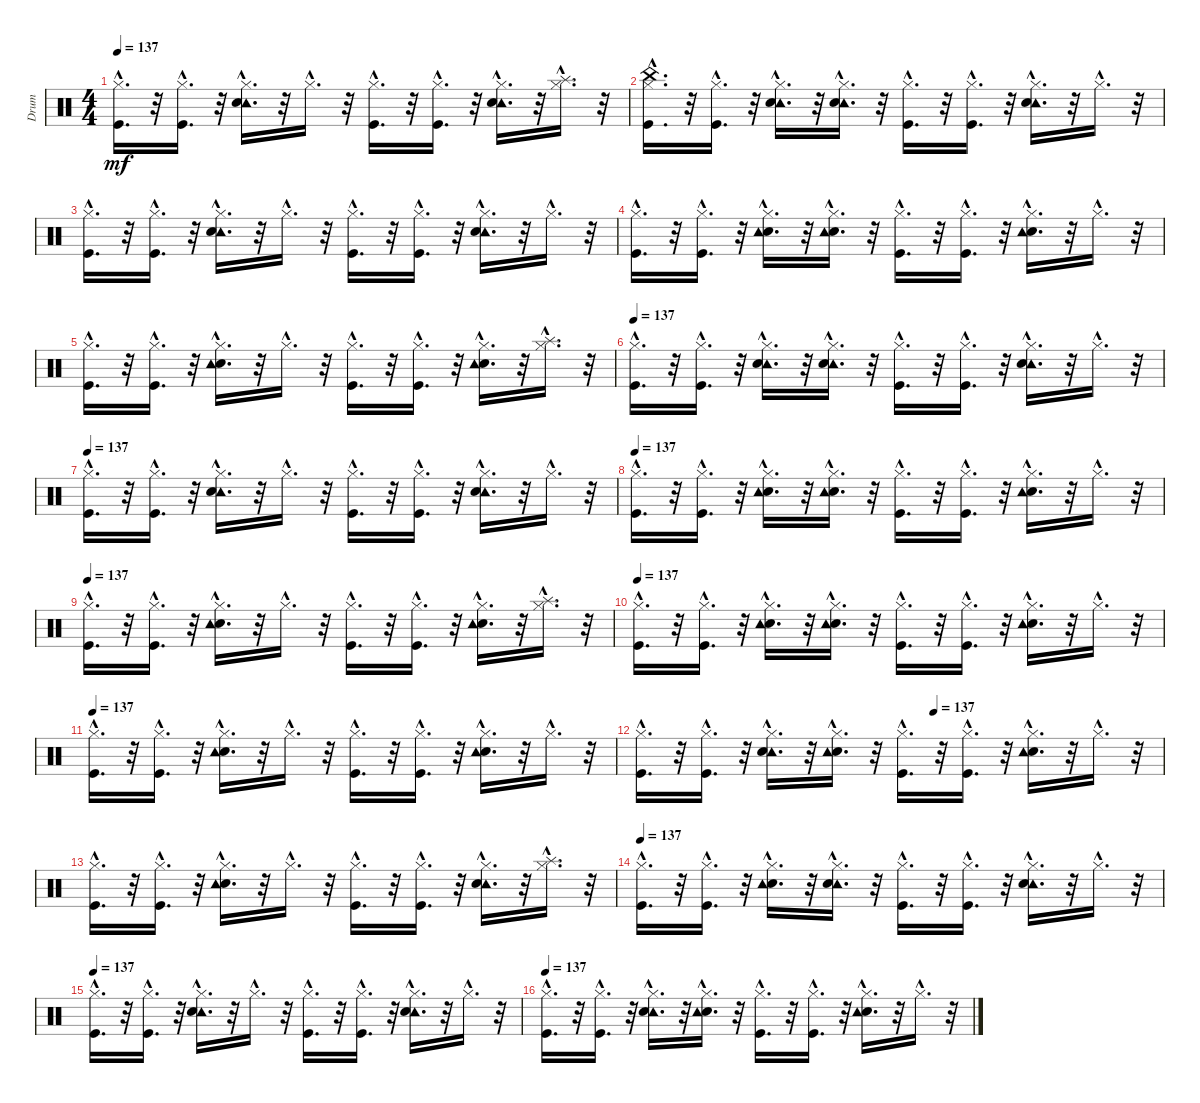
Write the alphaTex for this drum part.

\track ("Drum" "Drum") {instrument percussion}
\staff {score}
\articulation defaults
\ts (4 4)
\tempo 137
\clef neutral
\ks c
("Hi-Hat (closed)"{hac} "Kick (hit)"{hac}).16{d dy mf} r.32 ("Hi-Hat (closed)"{hac} "Kick (hit)"{hac}).16{d} r.32 ("Tambourine (hit)"{hac} "Hi-Hat (closed)"{hac} "Snare (hit) 2"{hac}).16{d} r.32 "Hi-Hat (closed)"{hac}.16{d} r.32 ("Hi-Hat (closed)"{hac} "Kick (hit)"{hac}).16{d} r.32 ("Hi-Hat (closed)"{hac} "Kick (hit)"{hac}).16{d} r.32 ("Tambourine (hit)"{hac} "Hi-Hat (closed)"{hac} "Snare (hit) 2"{hac}).16{d} r.32 ("Splash (hit)"{hac} "Hi-Hat (closed)"{hac}).16{d} r.32 |
("Hi-Hat (closed)"{hac} "Kick (hit)"{hac} "China (hit)"{hac}).16{d} r.32 ("Hi-Hat (closed)"{hac} "Kick (hit)"{hac}).16{d} r.32 ("Tambourine (hit)"{hac} "Hi-Hat (closed)"{hac} "Snare (hit) 2"{hac}).16{d} r.32 ("Tambourine (hit)"{hac} "Hi-Hat (closed)"{hac} "Snare (hit) 2"{hac}).16{d} r.32 ("Hi-Hat (closed)"{hac} "Kick (hit)"{hac}).16{d} r.32 ("Hi-Hat (closed)"{hac} "Kick (hit)"{hac}).16{d} r.32 ("Tambourine (hit)"{hac} "Hi-Hat (closed)"{hac} "Snare (hit) 2"{hac}).16{d} r.32 "Hi-Hat (closed)"{hac}.16{d} r.32 |
("Hi-Hat (closed)"{hac} "Kick (hit)"{hac}).16{d} r.32 ("Hi-Hat (closed)"{hac} "Kick (hit)"{hac}).16{d} r.32 ("Tambourine (hit)"{hac} "Hi-Hat (closed)"{hac} "Snare (hit) 2"{hac}).16{d} r.32 "Hi-Hat (closed)"{hac}.16{d} r.32 ("Hi-Hat (closed)"{hac} "Kick (hit)"{hac}).16{d} r.32 ("Hi-Hat (closed)"{hac} "Kick (hit)"{hac}).16{d} r.32 ("Tambourine (hit)"{hac} "Hi-Hat (closed)"{hac} "Snare (hit) 2"{hac}).16{d} r.32 "Hi-Hat (closed)"{hac}.16{d} r.32 |
("Kick (hit)"{hac} "Hi-Hat (closed)"{hac}).16{d} r.32 ("Kick (hit)"{hac} "Hi-Hat (closed)"{hac}).16{d} r.32 ("Snare (hit) 2"{hac} "Hi-Hat (closed)"{hac} "Tambourine (hit)"{hac}).16{d} r.32 ("Snare (hit) 2"{hac} "Hi-Hat (closed)"{hac} "Tambourine (hit)"{hac}).16{d} r.32 ("Kick (hit)"{hac} "Hi-Hat (closed)"{hac}).16{d} r.32 ("Kick (hit)"{hac} "Hi-Hat (closed)"{hac}).16{d} r.32 ("Snare (hit) 2"{hac} "Hi-Hat (closed)"{hac} "Tambourine (hit)"{hac}).16{d} r.32 "Hi-Hat (closed)"{hac}.16{d} r.32 |
("Kick (hit)"{hac} "Hi-Hat (closed)"{hac}).16{d} r.32 ("Kick (hit)"{hac} "Hi-Hat (closed)"{hac}).16{d} r.32 ("Snare (hit) 2"{hac} "Hi-Hat (closed)"{hac} "Tambourine (hit)"{hac}).16{d} r.32 "Hi-Hat (closed)"{hac}.16{d} r.32 ("Kick (hit)"{hac} "Hi-Hat (closed)"{hac}).16{d} r.32 ("Kick (hit)"{hac} "Hi-Hat (closed)"{hac}).16{d} r.32 ("Snare (hit) 2"{hac} "Hi-Hat (closed)"{hac} "Tambourine (hit)"{hac}).16{d} r.32 ("Hi-Hat (closed)"{hac} "Splash (hit)"{hac}).16{d} r.32 |
\tempo 137
("Hi-Hat (closed)"{hac} "Kick (hit)"{hac}).16{d} r.32 ("Hi-Hat (closed)"{hac} "Kick (hit)"{hac}).16{d} r.32 ("Tambourine (hit)"{hac} "Hi-Hat (closed)"{hac} "Snare (hit) 2"{hac}).16{d} r.32 ("Tambourine (hit)"{hac} "Hi-Hat (closed)"{hac} "Snare (hit) 2"{hac}).16{d} r.32 ("Hi-Hat (closed)"{hac} "Kick (hit)"{hac}).16{d} r.32 ("Hi-Hat (closed)"{hac} "Kick (hit)"{hac}).16{d} r.32 ("Tambourine (hit)"{hac} "Hi-Hat (closed)"{hac} "Snare (hit) 2"{hac}).16{d} r.32 "Hi-Hat (closed)"{hac}.16{d} r.32 |
\tempo 137
("Hi-Hat (closed)"{hac} "Kick (hit)"{hac}).16{d} r.32 ("Hi-Hat (closed)"{hac} "Kick (hit)"{hac}).16{d} r.32 ("Tambourine (hit)"{hac} "Hi-Hat (closed)"{hac} "Snare (hit) 2"{hac}).16{d} r.32 "Hi-Hat (closed)"{hac}.16{d} r.32 ("Hi-Hat (closed)"{hac} "Kick (hit)"{hac}).16{d} r.32 ("Hi-Hat (closed)"{hac} "Kick (hit)"{hac}).16{d} r.32 ("Tambourine (hit)"{hac} "Hi-Hat (closed)"{hac} "Snare (hit) 2"{hac}).16{d} r.32 "Hi-Hat (closed)"{hac}.16{d} r.32 |
\tempo 137
("Hi-Hat (closed)"{hac} "Kick (hit)"{hac}).16{d} r.32 ("Hi-Hat (closed)"{hac} "Kick (hit)"{hac}).16{d} r.32 ("Hi-Hat (closed)"{hac} "Snare (hit) 2"{hac} "Tambourine (hit)"{hac}).16{d} r.32 ("Hi-Hat (closed)"{hac} "Snare (hit) 2"{hac} "Tambourine (hit)"{hac}).16{d} r.32 ("Hi-Hat (closed)"{hac} "Kick (hit)"{hac}).16{d} r.32 ("Hi-Hat (closed)"{hac} "Kick (hit)"{hac}).16{d} r.32 ("Snare (hit) 2"{hac} "Tambourine (hit)"{hac} "Hi-Hat (closed)"{hac}).16{d} r.32 "Hi-Hat (closed)"{hac}.16{d} r.32 |
\tempo 137
("Hi-Hat (closed)"{hac} "Kick (hit)"{hac}).16{d} r.32 ("Hi-Hat (closed)"{hac} "Kick (hit)"{hac}).16{d} r.32 ("Snare (hit) 2"{hac} "Tambourine (hit)"{hac} "Hi-Hat (closed)"{hac}).16{d} r.32 "Hi-Hat (closed)"{hac}.16{d} r.32 ("Hi-Hat (closed)"{hac} "Kick (hit)"{hac}).16{d} r.32 ("Kick (hit)"{hac} "Hi-Hat (closed)"{hac}).16{d} r.32 ("Snare (hit) 2"{hac} "Tambourine (hit)"{hac} "Hi-Hat (closed)"{hac}).16{d} r.32 ("Splash (hit)"{hac} "Hi-Hat (closed)"{hac}).16{d} r.32 |
\tempo 137
("Hi-Hat (closed)"{hac} "Kick (hit)"{hac}).16{d} r.32 ("Hi-Hat (closed)"{hac} "Kick (hit)"{hac}).16{d} r.32 ("Snare (hit) 2"{hac} "Hi-Hat (closed)"{hac} "Tambourine (hit)"{hac}).16{d} r.32 ("Hi-Hat (closed)"{hac} "Snare (hit) 2"{hac} "Tambourine (hit)"{hac}).16{d} r.32 ("Hi-Hat (closed)"{hac} "Kick (hit)"{hac}).16{d} r.32 ("Kick (hit)"{hac} "Hi-Hat (closed)"{hac}).16{d} r.32 ("Snare (hit) 2"{hac} "Tambourine (hit)"{hac} "Hi-Hat (closed)"{hac}).16{d} r.32 "Hi-Hat (closed)"{hac}.16{d} r.32 |
\tempo 137
("Hi-Hat (closed)"{hac} "Kick (hit)"{hac}).16{d} r.32 ("Hi-Hat (closed)"{hac} "Kick (hit)"{hac}).16{d} r.32 ("Snare (hit) 2"{hac} "Tambourine (hit)"{hac} "Hi-Hat (closed)"{hac}).16{d} r.32 "Hi-Hat (closed)"{hac}.16{d} r.32 ("Hi-Hat (closed)"{hac} "Kick (hit)"{hac}).16{d} r.32 ("Kick (hit)"{hac} "Hi-Hat (closed)"{hac}).16{d} r.32 ("Snare (hit) 2"{hac} "Hi-Hat (closed)"{hac} "Tambourine (hit)"{hac}).16{d} r.32 "Hi-Hat (closed)"{hac}.16{d} r.32 |
\tempo (137 0.5625)
("Kick (hit)"{hac} "Hi-Hat (closed)"{hac}).16{d} r.32 ("Kick (hit)"{hac} "Hi-Hat (closed)"{hac}).16{d} r.32 ("Tambourine (hit)"{hac} "Snare (hit) 2"{hac} "Hi-Hat (closed)"{hac}).16{d} r.32 ("Hi-Hat (closed)"{hac} "Snare (hit) 2"{hac} "Tambourine (hit)"{hac}).16{d} r.32 ("Kick (hit)"{hac} "Hi-Hat (closed)"{hac}).16{d} r.32 ("Kick (hit)"{hac} "Hi-Hat (closed)"{hac}).16{d} r.32 ("Snare (hit) 2"{hac} "Hi-Hat (closed)"{hac} "Tambourine (hit)"{hac}).16{d} r.32 "Hi-Hat (closed)"{hac}.16{d} r.32 |
("Hi-Hat (closed)"{hac} "Kick (hit)"{hac}).16{d} r.32 ("Kick (hit)"{hac} "Hi-Hat (closed)"{hac}).16{d} r.32 ("Hi-Hat (closed)"{hac} "Snare (hit) 2"{hac} "Tambourine (hit)"{hac}).16{d} r.32 "Hi-Hat (closed)"{hac}.16{d} r.32 ("Kick (hit)"{hac} "Hi-Hat (closed)"{hac}).16{d} r.32 ("Kick (hit)"{hac} "Hi-Hat (closed)"{hac}).16{d} r.32 ("Tambourine (hit)"{hac} "Hi-Hat (closed)"{hac} "Snare (hit) 2"{hac}).16{d} r.32 ("Splash (hit)"{hac} "Hi-Hat (closed)"{hac}).16{d} r.32 |
\tempo 137
("Hi-Hat (closed)"{hac} "Kick (hit)"{hac}).16{d} r.32 ("Hi-Hat (closed)"{hac} "Kick (hit)"{hac}).16{d} r.32 ("Snare (hit) 2"{hac} "Tambourine (hit)"{hac} "Hi-Hat (closed)"{hac}).16{d} r.32 ("Tambourine (hit)"{hac} "Hi-Hat (closed)"{hac} "Snare (hit) 2"{hac}).16{d} r.32 ("Hi-Hat (closed)"{hac} "Kick (hit)"{hac}).16{d} r.32 ("Kick (hit)"{hac} "Hi-Hat (closed)"{hac}).16{d} r.32 ("Tambourine (hit)"{hac} "Snare (hit) 2"{hac} "Hi-Hat (closed)"{hac}).16{d} r.32 "Hi-Hat (closed)"{hac}.16{d} r.32 |
\tempo 137
("Hi-Hat (closed)"{hac} "Kick (hit)"{hac}).16{d} r.32 ("Hi-Hat (closed)"{hac} "Kick (hit)"{hac}).16{d} r.32 ("Tambourine (hit)"{hac} "Hi-Hat (closed)"{hac} "Snare (hit) 2"{hac}).16{d} r.32 "Hi-Hat (closed)"{hac}.16{d} r.32 ("Hi-Hat (closed)"{hac} "Kick (hit)"{hac}).16{d} r.32 ("Kick (hit)"{hac} "Hi-Hat (closed)"{hac}).16{d} r.32 ("Tambourine (hit)"{hac} "Snare (hit) 2"{hac} "Hi-Hat (closed)"{hac}).16{d} r.32 "Hi-Hat (closed)"{hac}.16{d} r.32 |
\tempo 137
("Hi-Hat (closed)"{hac} "Kick (hit)"{hac}).16{d} r.32 ("Hi-Hat (closed)"{hac} "Kick (hit)"{hac}).16{d} r.32 ("Tambourine (hit)"{hac} "Snare (hit) 2"{hac} "Hi-Hat (closed)"{hac}).16{d} r.32 ("Snare (hit) 2"{hac} "Hi-Hat (closed)"{hac} "Tambourine (hit)"{hac}).16{d} r.32 ("Kick (hit)"{hac} "Hi-Hat (closed)"{hac}).16{d} r.32 ("Kick (hit)"{hac} "Hi-Hat (closed)"{hac}).16{d} r.32 ("Snare (hit) 2"{hac} "Hi-Hat (closed)"{hac} "Tambourine (hit)"{hac}).16{d} r.32 "Hi-Hat (closed)"{hac}.16{d} r.32
